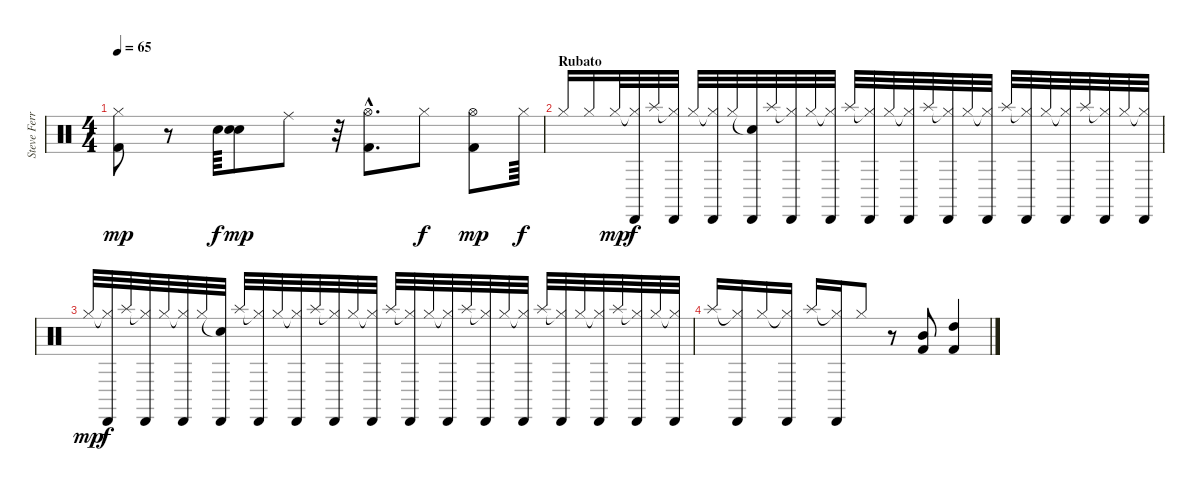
\track ("Steve Ferrone & Ray Cooper" "Steve Ferr") {instrument percussion}
\staff {score}
\articulation defaults
\ts (4 4)
\tempo 65
\clef neutral
\ks c
("Kick (hit) 2" "Hi-Hat (closed)").8{dy mp} r.8 "Snare (hit) 2".64{dy f} ("Snare (hit) 2" "Snare (hit) 2").8{dy mp} "Ride (middle)".8 r.32 ("Hi-Hat (open)"{hac} "Kick (hit) 2"{hac}).8{d} "Hi-Hat (closed)".8{dy f} ("Hi-Hat (open)" "Kick (hit) 2").8{dy mp} "Hi-Hat (closed)".64{dy f} |
\section ("" "Rubato")
"Hi-Hat (closed)".16 "Hi-Hat (closed)".16 "Hi-Hat (closed)".32{dy mp} ("Hi-Hat (closed)"{t} "Cabasa (hit)").32{dy f} "Splash (hit)".32 ("Hi-Hat (closed)"{t} "Cabasa (hit)").32 "Hi-Hat (closed)".32 ("Hi-Hat (closed)"{t} "Cabasa (hit)").32 "Hi-Hat (closed)".32 ("Snare (hit)"{t} "Cabasa (hit)").32 "Splash (hit)".32 ("Hi-Hat (closed)"{t} "Cabasa (hit)").32 "Hi-Hat (closed)".32 ("Hi-Hat (closed)"{t} "Cabasa (hit)").32 "Splash (hit)".32 ("Hi-Hat (closed)"{t} "Cabasa (hit)").32 "Hi-Hat (closed)".32 ("Hi-Hat (closed)"{t} "Cabasa (hit)").32 "Splash (hit)".32 ("Hi-Hat (closed)"{t} "Cabasa (hit)").32 "Hi-Hat (closed)".32 ("Hi-Hat (closed)"{t} "Cabasa (hit)").32 "Splash (hit)".32 ("Hi-Hat (closed)"{t} "Cabasa (hit)").32 "Hi-Hat (closed)".32 ("Hi-Hat (closed)"{t} "Cabasa (hit)").32 "Splash (hit)".32 ("Hi-Hat (closed)"{t} "Cabasa (hit)").32 "Hi-Hat (closed)".32 ("Hi-Hat (closed)"{t} "Cabasa (hit)").32 |
"Hi-Hat (closed)".32{dy mp} ("Hi-Hat (closed)"{t} "Cabasa (hit)").32{dy f} "Splash (hit)".32 ("Hi-Hat (closed)"{t} "Cabasa (hit)").32 "Hi-Hat (closed)".32 ("Hi-Hat (closed)"{t} "Cabasa (hit)").32 "Hi-Hat (closed)".32 ("Snare (hit)"{t} "Cabasa (hit)").32 "Splash (hit)".32 ("Hi-Hat (closed)"{t} "Cabasa (hit)").32 "Hi-Hat (closed)".32 ("Hi-Hat (closed)"{t} "Cabasa (hit)").32 "Splash (hit)".32 ("Hi-Hat (closed)"{t} "Cabasa (hit)").32 "Hi-Hat (closed)".32 ("Hi-Hat (closed)"{t} "Cabasa (hit)").32 "Splash (hit)".32 ("Hi-Hat (closed)"{t} "Cabasa (hit)").32 "Hi-Hat (closed)".32 ("Hi-Hat (closed)"{t} "Cabasa (hit)").32 "Splash (hit)".32 ("Hi-Hat (closed)"{t} "Cabasa (hit)").32 "Hi-Hat (closed)".32 ("Hi-Hat (closed)"{t} "Cabasa (hit)").32 "Splash (hit)".32 ("Hi-Hat (closed)"{t} "Cabasa (hit)").32 "Hi-Hat (closed)".32 ("Hi-Hat (closed)"{t} "Cabasa (hit)").32 "Splash (hit)".32 ("Hi-Hat (closed)"{t} "Cabasa (hit)").32 "Hi-Hat (closed)".32 ("Hi-Hat (closed)"{t} "Cabasa (hit)").32 |
"Splash (hit)".16 ("Hi-Hat (closed)"{t} "Cabasa (hit)").16 "Hi-Hat (closed)".16 ("Hi-Hat (closed)"{t} "Cabasa (hit)").16 "Splash (hit)".16 ("Hi-Hat (closed)"{t} "Cabasa (hit)").16 "Hi-Hat (closed)".8 r.8 ("Mid Tom (hit)" "Kick (hit) 2").8 ("High Tom (hit)" "Kick (hit) 2").4
